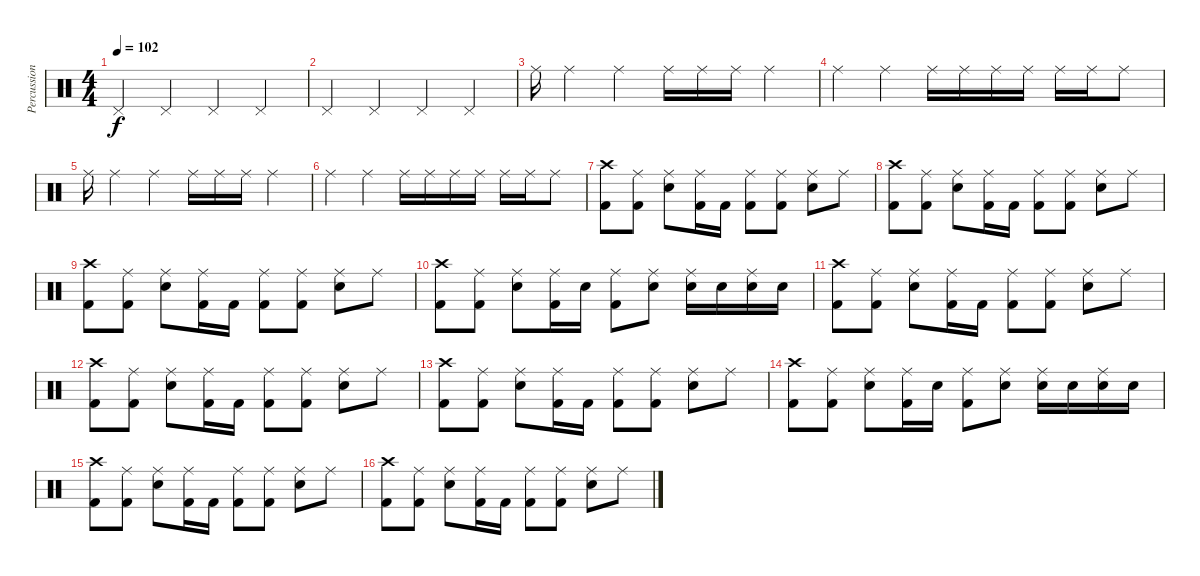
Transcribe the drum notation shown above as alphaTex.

\track ("Percussion" "Percussion") {instrument percussion}
\staff {score}
\articulation defaults
\ts (4 4)
\tempo 102
\clef neutral
\ks c "Pedal Hi-Hat (hit)".4{dy f} "Pedal Hi-Hat (hit)".4 "Pedal Hi-Hat (hit)".4 "Pedal Hi-Hat (hit)".4
|
"Pedal Hi-Hat (hit)".4 "Pedal Hi-Hat (hit)".4 "Pedal Hi-Hat (hit)".4 "Pedal Hi-Hat (hit)".4 |
"Ride (middle)".16 "Ride (middle)".4 "Ride (middle)".4 "Ride (middle)".16 "Ride (middle)".16 "Ride (middle)".16 "Ride (middle)".4 |
"Ride (middle)".4 "Ride (middle)".4 "Ride (middle)".16 "Ride (middle)".16 "Ride (middle)".16 "Ride (middle)".16 "Ride (middle)".16 "Ride (middle)".16 "Ride (middle)".8 |
"Ride (middle)".16 "Ride (middle)".4 "Ride (middle)".4 "Ride (middle)".16 "Ride (middle)".16 "Ride (middle)".16 "Ride (middle)".4 |
"Ride (middle)".4 "Ride (middle)".4 "Ride (middle)".16 "Ride (middle)".16 "Ride (middle)".16 "Ride (middle)".16 "Ride (middle)".16 "Ride (middle)".16 "Ride (middle)".8 |
("Crash high (hit)" "Kick (hit) 2").8 ("Ride (middle)" "Kick (hit) 2").8 ("Ride (middle)" "Snare (hit) 2").8 ("Ride (middle)" "Kick (hit) 2").16 "Kick (hit) 2".16 ("Ride (middle)" "Kick (hit) 2").8 ("Ride (middle)" "Kick (hit) 2").8 ("Ride (middle)" "Snare (hit) 2").8 "Ride (middle)".8 |
("Crash high (hit)" "Kick (hit) 2").8 ("Ride (middle)" "Kick (hit) 2").8 ("Ride (middle)" "Snare (hit) 2").8 ("Ride (middle)" "Kick (hit) 2").16 "Kick (hit) 2".16 ("Ride (middle)" "Kick (hit) 2").8 ("Ride (middle)" "Kick (hit) 2").8 ("Ride (middle)" "Snare (hit) 2").8 "Ride (middle)".8 |
("Crash high (hit)" "Kick (hit) 2").8 ("Ride (middle)" "Kick (hit) 2").8 ("Ride (middle)" "Snare (hit) 2").8 ("Ride (middle)" "Kick (hit) 2").16 "Kick (hit) 2".16 ("Ride (middle)" "Kick (hit) 2").8 ("Ride (middle)" "Kick (hit) 2").8 ("Ride (middle)" "Snare (hit) 2").8 "Ride (middle)".8 |
("Crash high (hit)" "Kick (hit) 2").8 ("Ride (middle)" "Kick (hit) 2").8 ("Ride (middle)" "Snare (hit) 2").8 ("Ride (middle)" "Kick (hit) 2").16 "Snare (hit) 2".16 ("Ride (middle)" "Kick (hit) 2").8 ("Ride (middle)" "Snare (hit) 2").8 ("Ride (middle)" "Snare (hit) 2").16 "Snare (hit) 2".16 ("Ride (middle)" "Snare (hit) 2").16 "Snare (hit) 2".16 |
("Crash high (hit)" "Kick (hit) 2").8 ("Ride (middle)" "Kick (hit) 2").8 ("Ride (middle)" "Snare (hit) 2").8 ("Ride (middle)" "Kick (hit) 2").16 "Kick (hit) 2".16 ("Ride (middle)" "Kick (hit) 2").8 ("Ride (middle)" "Kick (hit) 2").8 ("Ride (middle)" "Snare (hit) 2").8 "Ride (middle)".8 |
("Crash high (hit)" "Kick (hit) 2").8 ("Ride (middle)" "Kick (hit) 2").8 ("Ride (middle)" "Snare (hit) 2").8 ("Ride (middle)" "Kick (hit) 2").16 "Kick (hit) 2".16 ("Ride (middle)" "Kick (hit) 2").8 ("Ride (middle)" "Kick (hit) 2").8 ("Ride (middle)" "Snare (hit) 2").8 "Ride (middle)".8 |
("Crash high (hit)" "Kick (hit) 2").8 ("Ride (middle)" "Kick (hit) 2").8 ("Ride (middle)" "Snare (hit) 2").8 ("Ride (middle)" "Kick (hit) 2").16 "Kick (hit) 2".16 ("Ride (middle)" "Kick (hit) 2").8 ("Ride (middle)" "Kick (hit) 2").8 ("Ride (middle)" "Snare (hit) 2").8 "Ride (middle)".8 |
("Crash high (hit)" "Kick (hit) 2").8 ("Ride (middle)" "Kick (hit) 2").8 ("Ride (middle)" "Snare (hit) 2").8 ("Ride (middle)" "Kick (hit) 2").16 "Snare (hit) 2".16 ("Ride (middle)" "Kick (hit) 2").8 ("Ride (middle)" "Snare (hit) 2").8 ("Ride (middle)" "Snare (hit) 2").16 "Snare (hit) 2".16 ("Ride (middle)" "Snare (hit) 2").16 "Snare (hit) 2".16 |
("Crash high (hit)" "Kick (hit) 2").8 ("Ride (middle)" "Kick (hit) 2").8 ("Ride (middle)" "Snare (hit) 2").8 ("Ride (middle)" "Kick (hit) 2").16 "Kick (hit) 2".16 ("Ride (middle)" "Kick (hit) 2").8 ("Ride (middle)" "Kick (hit) 2").8 ("Ride (middle)" "Snare (hit) 2").8 "Ride (middle)".8 |
("Crash high (hit)" "Kick (hit) 2").8 ("Ride (middle)" "Kick (hit) 2").8 ("Ride (middle)" "Snare (hit) 2").8 ("Ride (middle)" "Kick (hit) 2").16 "Kick (hit) 2".16 ("Ride (middle)" "Kick (hit) 2").8 ("Ride (middle)" "Kick (hit) 2").8 ("Ride (middle)" "Snare (hit) 2").8 "Ride (middle)".8
